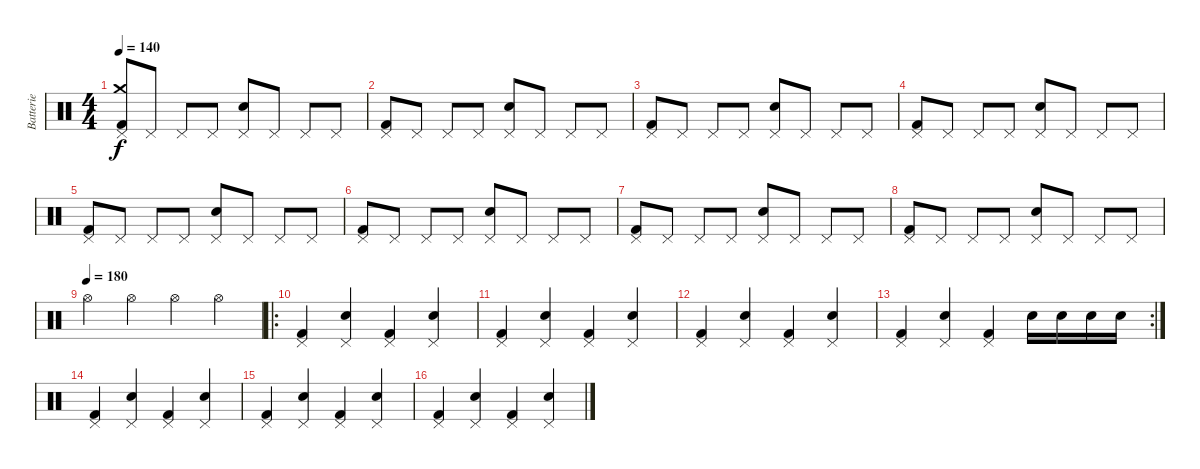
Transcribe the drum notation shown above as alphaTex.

\track ("Batterie" "Batterie") {instrument percussion}
\staff {score}
\articulation defaults
\ts (4 4)
\tempo 140
\clef neutral
\ks c
("Kick (hit) 2" "Crash medium (hit)" "Pedal Hi-Hat (hit)").8{dy f} "Pedal Hi-Hat (hit)".8 "Pedal Hi-Hat (hit)".8 "Pedal Hi-Hat (hit)".8 ("Electric Snare (hit)" "Pedal Hi-Hat (hit)").8 "Pedal Hi-Hat (hit)".8 "Pedal Hi-Hat (hit)".8 "Pedal Hi-Hat (hit)".8 |
("Kick (hit) 2" "Pedal Hi-Hat (hit)").8 "Pedal Hi-Hat (hit)".8 "Pedal Hi-Hat (hit)".8 "Pedal Hi-Hat (hit)".8 ("Electric Snare (hit)" "Pedal Hi-Hat (hit)").8 "Pedal Hi-Hat (hit)".8 "Pedal Hi-Hat (hit)".8 "Pedal Hi-Hat (hit)".8 |
("Kick (hit) 2" "Pedal Hi-Hat (hit)").8 "Pedal Hi-Hat (hit)".8 "Pedal Hi-Hat (hit)".8 "Pedal Hi-Hat (hit)".8 ("Electric Snare (hit)" "Pedal Hi-Hat (hit)").8 "Pedal Hi-Hat (hit)".8 "Pedal Hi-Hat (hit)".8 "Pedal Hi-Hat (hit)".8 |
("Kick (hit) 2" "Pedal Hi-Hat (hit)").8 "Pedal Hi-Hat (hit)".8 "Pedal Hi-Hat (hit)".8 "Pedal Hi-Hat (hit)".8 ("Electric Snare (hit)" "Pedal Hi-Hat (hit)").8 "Pedal Hi-Hat (hit)".8 "Pedal Hi-Hat (hit)".8 "Pedal Hi-Hat (hit)".8 |
("Kick (hit) 2" "Pedal Hi-Hat (hit)").8 "Pedal Hi-Hat (hit)".8 "Pedal Hi-Hat (hit)".8 "Pedal Hi-Hat (hit)".8 ("Electric Snare (hit)" "Pedal Hi-Hat (hit)").8 "Pedal Hi-Hat (hit)".8 "Pedal Hi-Hat (hit)".8 "Pedal Hi-Hat (hit)".8 |
("Kick (hit) 2" "Pedal Hi-Hat (hit)").8 "Pedal Hi-Hat (hit)".8 "Pedal Hi-Hat (hit)".8 "Pedal Hi-Hat (hit)".8 ("Electric Snare (hit)" "Pedal Hi-Hat (hit)").8 "Pedal Hi-Hat (hit)".8 "Pedal Hi-Hat (hit)".8 "Pedal Hi-Hat (hit)".8 |
("Kick (hit) 2" "Pedal Hi-Hat (hit)").8 "Pedal Hi-Hat (hit)".8 "Pedal Hi-Hat (hit)".8 "Pedal Hi-Hat (hit)".8 ("Electric Snare (hit)" "Pedal Hi-Hat (hit)").8 "Pedal Hi-Hat (hit)".8 "Pedal Hi-Hat (hit)".8 "Pedal Hi-Hat (hit)".8 |
("Kick (hit) 2" "Pedal Hi-Hat (hit)").8 "Pedal Hi-Hat (hit)".8 "Pedal Hi-Hat (hit)".8 "Pedal Hi-Hat (hit)".8 ("Electric Snare (hit)" "Pedal Hi-Hat (hit)").8 "Pedal Hi-Hat (hit)".8 "Pedal Hi-Hat (hit)".8 "Pedal Hi-Hat (hit)".8 |
\tempo (180)
"Hi-Hat (open)".4 "Hi-Hat (open)".4 "Hi-Hat (open)".4 "Hi-Hat (open)".4 |
\ro
("Kick (hit) 2" "Pedal Hi-Hat (hit)").4 ("Electric Snare (hit)" "Pedal Hi-Hat (hit)").4 ("Kick (hit) 2" "Pedal Hi-Hat (hit)").4 ("Electric Snare (hit)" "Pedal Hi-Hat (hit)").4 |
("Kick (hit) 2" "Pedal Hi-Hat (hit)").4 ("Electric Snare (hit)" "Pedal Hi-Hat (hit)").4 ("Kick (hit) 2" "Pedal Hi-Hat (hit)").4 ("Electric Snare (hit)" "Pedal Hi-Hat (hit)").4 |
("Kick (hit) 2" "Pedal Hi-Hat (hit)").4 ("Electric Snare (hit)" "Pedal Hi-Hat (hit)").4 ("Kick (hit) 2" "Pedal Hi-Hat (hit)").4 ("Electric Snare (hit)" "Pedal Hi-Hat (hit)").4 |
\rc 2
("Kick (hit) 2" "Pedal Hi-Hat (hit)").4 ("Electric Snare (hit)" "Pedal Hi-Hat (hit)").4 ("Kick (hit) 2" "Pedal Hi-Hat (hit)").4 "Electric Snare (hit)".16 "Electric Snare (hit)".16 "Electric Snare (hit)".16 "Electric Snare (hit)".16 |
("Kick (hit) 2" "Pedal Hi-Hat (hit)").4 ("Electric Snare (hit)" "Pedal Hi-Hat (hit)").4 ("Kick (hit) 2" "Pedal Hi-Hat (hit)").4 ("Electric Snare (hit)" "Pedal Hi-Hat (hit)").4 |
("Kick (hit) 2" "Pedal Hi-Hat (hit)").4 ("Electric Snare (hit)" "Pedal Hi-Hat (hit)").4 ("Kick (hit) 2" "Pedal Hi-Hat (hit)").4 ("Electric Snare (hit)" "Pedal Hi-Hat (hit)").4 |
("Kick (hit) 2" "Pedal Hi-Hat (hit)").4 ("Electric Snare (hit)" "Pedal Hi-Hat (hit)").4 ("Kick (hit) 2" "Pedal Hi-Hat (hit)").4 ("Electric Snare (hit)" "Pedal Hi-Hat (hit)").4
